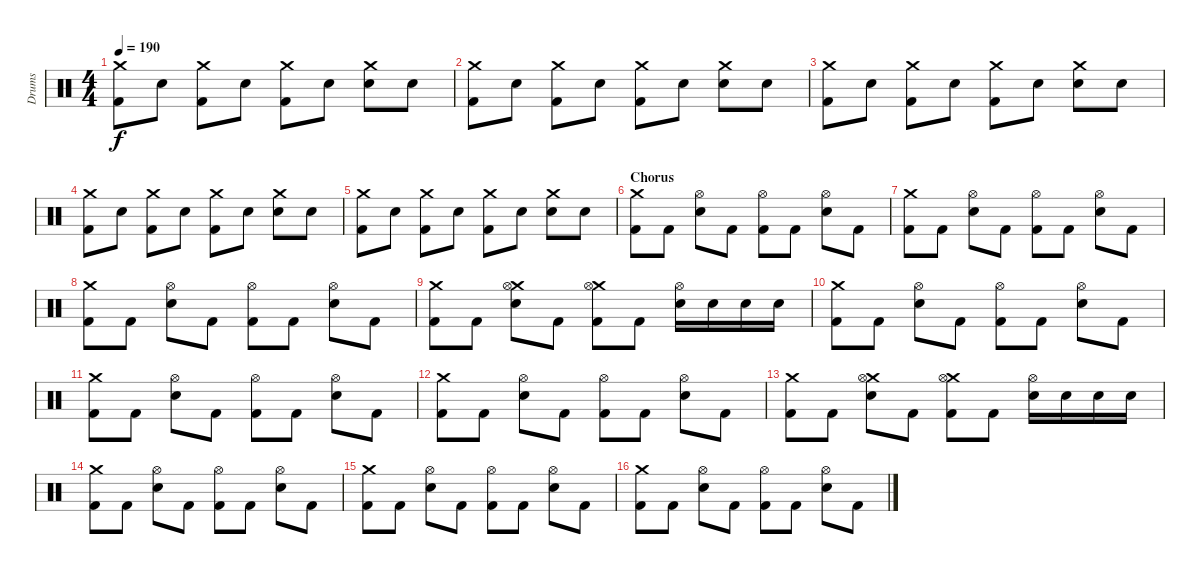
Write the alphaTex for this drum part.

\track ("Drums" "Drums") {instrument percussion}
\staff {score}
\articulation defaults
\ts (4 4)
\tempo 190
\clef neutral
\ks c
("Crash medium (hit)" "Kick (hit) 2").8{dy f} "Snare (hit) 2".8 ("Crash medium (hit)" "Kick (hit) 2").8 "Snare (hit) 2".8 ("Crash medium (hit)" "Kick (hit) 2").8 "Snare (hit) 2".8 ("Crash medium (hit)" "Snare (hit) 2").8 "Snare (hit) 2".8 |
("Crash medium (hit)" "Kick (hit) 2").8 "Snare (hit) 2".8 ("Crash medium (hit)" "Kick (hit) 2").8 "Snare (hit) 2".8 ("Crash medium (hit)" "Kick (hit) 2").8 "Snare (hit) 2".8 ("Crash medium (hit)" "Snare (hit) 2").8 "Snare (hit) 2".8 |
("Crash medium (hit)" "Kick (hit) 2").8 "Snare (hit) 2".8 ("Crash medium (hit)" "Kick (hit) 2").8 "Snare (hit) 2".8 ("Crash medium (hit)" "Kick (hit) 2").8 "Snare (hit) 2".8 ("Crash medium (hit)" "Snare (hit) 2").8 "Snare (hit) 2".8 |
("Crash medium (hit)" "Kick (hit) 2").8 "Snare (hit) 2".8 ("Crash medium (hit)" "Kick (hit) 2").8 "Snare (hit) 2".8 ("Crash medium (hit)" "Kick (hit) 2").8 "Snare (hit) 2".8 ("Crash medium (hit)" "Snare (hit) 2").8 "Snare (hit) 2".8 |
("Crash medium (hit)" "Kick (hit) 2").8 "Snare (hit) 2".8 ("Crash medium (hit)" "Kick (hit) 2").8 "Snare (hit) 2".8 ("Crash medium (hit)" "Kick (hit) 2").8 "Snare (hit) 2".8 ("Crash medium (hit)" "Snare (hit) 2").8 "Snare (hit) 2".8 |
\section ("" "Chorus")
("Crash medium (hit)" "Kick (hit) 2").8 "Kick (hit) 2".8 ("Hi-Hat (open)" "Snare (hit) 2").8 "Kick (hit) 2".8 ("Hi-Hat (open)" "Kick (hit) 2").8 "Kick (hit) 2".8 ("Hi-Hat (open)" "Snare (hit) 2").8 "Kick (hit) 2".8 |
("Crash medium (hit)" "Kick (hit) 2").8 "Kick (hit) 2".8 ("Hi-Hat (open)" "Snare (hit) 2").8 "Kick (hit) 2".8 ("Hi-Hat (open)" "Kick (hit) 2").8 "Kick (hit) 2".8 ("Hi-Hat (open)" "Snare (hit) 2").8 "Kick (hit) 2".8 |
("Crash medium (hit)" "Kick (hit) 2").8 "Kick (hit) 2".8 ("Hi-Hat (open)" "Snare (hit) 2").8 "Kick (hit) 2".8 ("Hi-Hat (open)" "Kick (hit) 2").8 "Kick (hit) 2".8 ("Hi-Hat (open)" "Snare (hit) 2").8 "Kick (hit) 2".8 |
("Crash medium (hit)" "Kick (hit) 2").8 "Kick (hit) 2".8 ("Crash medium (hit)" "Hi-Hat (open)" "Snare (hit) 2").8 "Kick (hit) 2".8 ("Crash medium (hit)" "Hi-Hat (open)" "Kick (hit) 2").8 "Kick (hit) 2".8 ("Hi-Hat (open)" "Snare (hit) 2").16 "Snare (hit) 2".16 "Snare (hit) 2".16 "Snare (hit) 2".16 |
("Crash medium (hit)" "Kick (hit) 2").8 "Kick (hit) 2".8 ("Hi-Hat (open)" "Snare (hit) 2").8 "Kick (hit) 2".8 ("Hi-Hat (open)" "Kick (hit) 2").8 "Kick (hit) 2".8 ("Hi-Hat (open)" "Snare (hit) 2").8 "Kick (hit) 2".8 |
("Crash medium (hit)" "Kick (hit) 2").8 "Kick (hit) 2".8 ("Hi-Hat (open)" "Snare (hit) 2").8 "Kick (hit) 2".8 ("Hi-Hat (open)" "Kick (hit) 2").8 "Kick (hit) 2".8 ("Hi-Hat (open)" "Snare (hit) 2").8 "Kick (hit) 2".8 |
("Crash medium (hit)" "Kick (hit) 2").8 "Kick (hit) 2".8 ("Hi-Hat (open)" "Snare (hit) 2").8 "Kick (hit) 2".8 ("Hi-Hat (open)" "Kick (hit) 2").8 "Kick (hit) 2".8 ("Hi-Hat (open)" "Snare (hit) 2").8 "Kick (hit) 2".8 |
("Crash medium (hit)" "Kick (hit) 2").8 "Kick (hit) 2".8 ("Crash medium (hit)" "Hi-Hat (open)" "Snare (hit) 2").8 "Kick (hit) 2".8 ("Crash medium (hit)" "Hi-Hat (open)" "Kick (hit) 2").8 "Kick (hit) 2".8 ("Hi-Hat (open)" "Snare (hit) 2").16 "Snare (hit) 2".16 "Snare (hit) 2".16 "Snare (hit) 2".16 |
("Crash medium (hit)" "Kick (hit) 2").8 "Kick (hit) 2".8 ("Hi-Hat (open)" "Snare (hit) 2").8 "Kick (hit) 2".8 ("Hi-Hat (open)" "Kick (hit) 2").8 "Kick (hit) 2".8 ("Hi-Hat (open)" "Snare (hit) 2").8 "Kick (hit) 2".8 |
("Crash medium (hit)" "Kick (hit) 2").8 "Kick (hit) 2".8 ("Hi-Hat (open)" "Snare (hit) 2").8 "Kick (hit) 2".8 ("Hi-Hat (open)" "Kick (hit) 2").8 "Kick (hit) 2".8 ("Hi-Hat (open)" "Snare (hit) 2").8 "Kick (hit) 2".8 |
("Crash medium (hit)" "Kick (hit) 2").8 "Kick (hit) 2".8 ("Hi-Hat (open)" "Snare (hit) 2").8 "Kick (hit) 2".8 ("Hi-Hat (open)" "Kick (hit) 2").8 "Kick (hit) 2".8 ("Hi-Hat (open)" "Snare (hit) 2").8 "Kick (hit) 2".8
